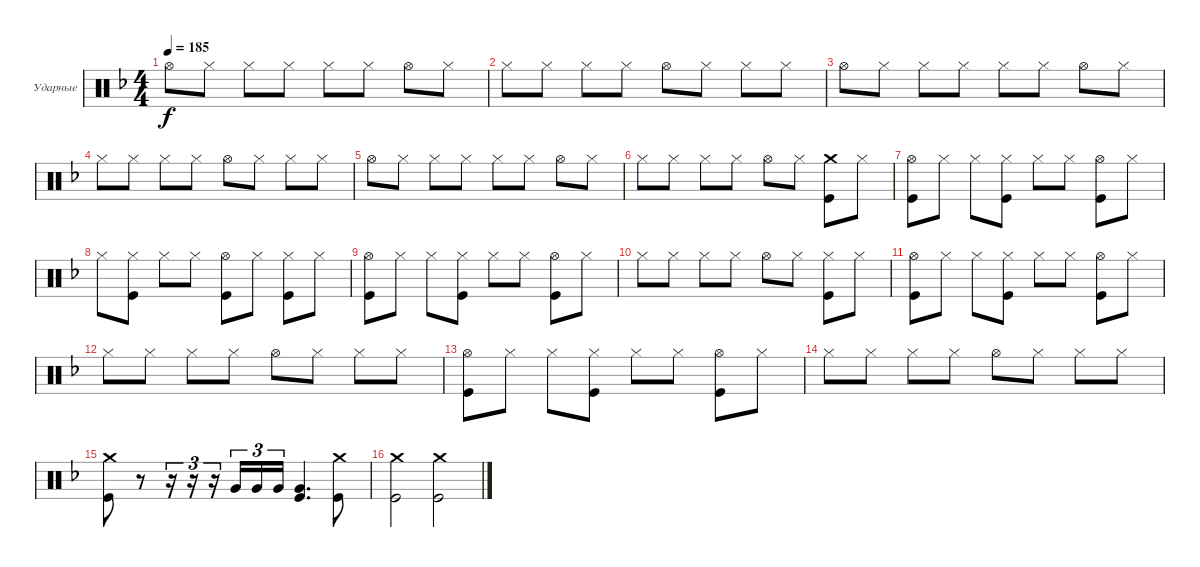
\bracketExtendMode groupsimilarinstruments
\firstSystemTrackNameOrientation horizontal
\otherSystemsTrackNameOrientation horizontal
\track ("Александр Львов" "Ударные") {instrument percussion}
\staff {score}
\articulation defaults
\ts (4 4)
\tempo 185
\clef neutral
\ks dminor "Hi-Hat (open)".8{dy f} "Hi-Hat (closed)".8 "Hi-Hat (closed)".8 "Hi-Hat (closed)".8 "Hi-Hat (closed)".8 "Hi-Hat (closed)".8 "Hi-Hat (open)".8 "Hi-Hat (closed)".8
|
"Hi-Hat (closed)".8 "Hi-Hat (closed)".8 "Hi-Hat (closed)".8 "Hi-Hat (closed)".8 "Hi-Hat (open)".8 "Hi-Hat (closed)".8 "Hi-Hat (closed)".8 "Hi-Hat (closed)".8 |
"Hi-Hat (open)".8 "Hi-Hat (closed)".8 "Hi-Hat (closed)".8 "Hi-Hat (closed)".8 "Hi-Hat (closed)".8 "Hi-Hat (closed)".8 "Hi-Hat (open)".8 "Hi-Hat (closed)".8 |
"Hi-Hat (closed)".8 "Hi-Hat (closed)".8 "Hi-Hat (closed)".8 "Hi-Hat (closed)".8 "Hi-Hat (open)".8 "Hi-Hat (closed)".8 "Hi-Hat (closed)".8 "Hi-Hat (closed)".8 |
"Hi-Hat (open)".8 "Hi-Hat (closed)".8 "Hi-Hat (closed)".8 "Hi-Hat (closed)".8 "Hi-Hat (closed)".8 "Hi-Hat (closed)".8 "Hi-Hat (open)".8 "Hi-Hat (closed)".8 |
"Hi-Hat (closed)".8 "Hi-Hat (closed)".8 "Hi-Hat (closed)".8 "Hi-Hat (closed)".8 "Hi-Hat (open)".8 "Hi-Hat (closed)".8 ("Crash medium (hit)" "Kick (hit)").8 "Hi-Hat (closed)".8 |
("Kick (hit)" "Hi-Hat (open)").8 "Hi-Hat (closed)".8 "Hi-Hat (closed)".8 ("Hi-Hat (closed)" "Kick (hit)").8 "Hi-Hat (closed)".8 "Hi-Hat (closed)".8 ("Hi-Hat (open)" "Kick (hit)").8 "Hi-Hat (closed)".8 |
"Hi-Hat (closed)".8 ("Hi-Hat (closed)" "Kick (hit)").8 "Hi-Hat (closed)".8 "Hi-Hat (closed)".8 ("Hi-Hat (open)" "Kick (hit)").8 "Hi-Hat (closed)".8 ("Hi-Hat (closed)" "Kick (hit)").8 "Hi-Hat (closed)".8 |
("Kick (hit)" "Hi-Hat (open)").8 "Hi-Hat (closed)".8 "Hi-Hat (closed)".8 ("Hi-Hat (closed)" "Kick (hit)").8 "Hi-Hat (closed)".8 "Hi-Hat (closed)".8 ("Hi-Hat (open)" "Kick (hit)").8 "Hi-Hat (closed)".8 |
"Hi-Hat (closed)".8 "Hi-Hat (closed)".8 "Hi-Hat (closed)".8 "Hi-Hat (closed)".8 "Hi-Hat (open)".8 "Hi-Hat (closed)".8 ("Hi-Hat (closed)" "Kick (hit)").8 "Hi-Hat (closed)".8 |
("Kick (hit)" "Hi-Hat (open)").8 "Hi-Hat (closed)".8 "Hi-Hat (closed)".8 ("Hi-Hat (closed)" "Kick (hit)").8 "Hi-Hat (closed)".8 "Hi-Hat (closed)".8 ("Hi-Hat (open)" "Kick (hit)").8 "Hi-Hat (closed)".8 |
"Hi-Hat (closed)".8 "Hi-Hat (closed)".8 "Hi-Hat (closed)".8 "Hi-Hat (closed)".8 "Hi-Hat (open)".8 "Hi-Hat (closed)".8 "Hi-Hat (closed)".8 "Hi-Hat (closed)".8 |
("Kick (hit)" "Hi-Hat (open)").8 "Hi-Hat (closed)".8 "Hi-Hat (closed)".8 ("Hi-Hat (closed)" "Kick (hit)").8 "Hi-Hat (closed)".8 "Hi-Hat (closed)".8 ("Hi-Hat (open)" "Kick (hit)").8 "Hi-Hat (closed)".8 |
"Hi-Hat (closed)".8 "Hi-Hat (closed)".8 "Hi-Hat (closed)".8 "Hi-Hat (closed)".8 "Hi-Hat (open)".8 "Hi-Hat (closed)".8 "Hi-Hat (closed)".8 "Hi-Hat (closed)".8 |
("Kick (hit)" "Crash medium (hit)").8 r.8 r.16{tu (3 2)} r.16{tu (3 2)} r.16{tu (3 2)} "Very Low Tom (hit)".16{tu (3 2)} "Very Low Tom (hit)".16{tu (3 2)} "Very Low Tom (hit)".16{tu (3 2)} ("Kick (hit)" "Very Low Tom (hit)").4{d} ("Kick (hit)" "Crash medium (hit)").8 |
("Kick (hit)" "Crash medium (hit)").2 ("Kick (hit)" "Crash medium (hit)").2
